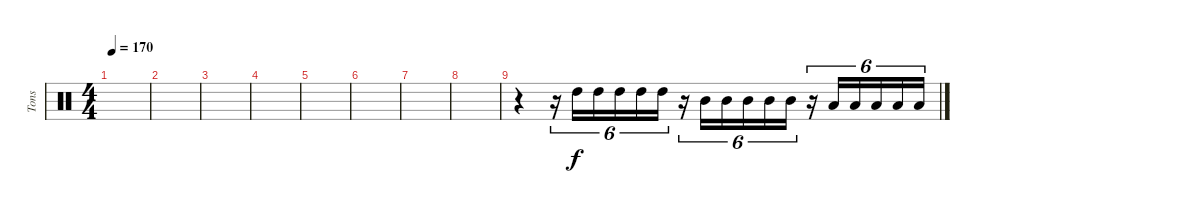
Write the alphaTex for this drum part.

\track ("Tons" "Tons") {instrument percussion}
\staff {score}
\articulation defaults
\ts (4 4)
\tempo 170
\clef neutral
\ks c
|
|
|
|
|
|
|
|
r.4 r.16{tu (6 4)} "High Tom (hit)".16{tu (6 4)} "High Tom (hit)".16{tu (6 4)} "High Tom (hit)".16{tu (6 4)} "High Tom (hit)".16{tu (6 4)} "High Tom (hit)".16{tu (6 4)} r.16{tu (6 4)} "Mid Tom (hit)".16{tu (6 4)} "Mid Tom (hit)".16{tu (6 4)} "Mid Tom (hit)".16{tu (6 4)} "Mid Tom (hit)".16{tu (6 4)} "Mid Tom (hit)".16{tu (6 4)} r.16{tu (6 4)} "Low Tom (hit)".16{tu (6 4)} "Low Tom (hit)".16{tu (6 4)} "Low Tom (hit)".16{tu (6 4)} "Low Tom (hit)".16{tu (6 4)} "Low Tom (hit)".16{tu (6 4)}
